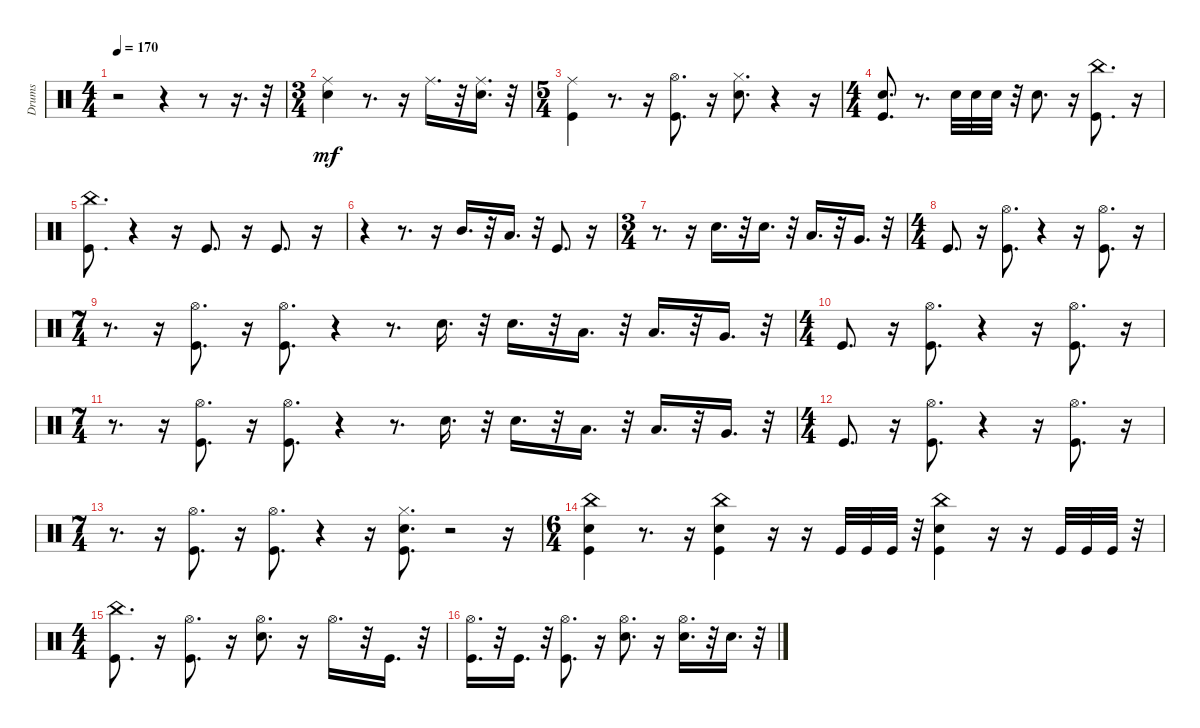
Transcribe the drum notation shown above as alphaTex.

\track ("Drums" "Drums") {instrument percussion}
\staff {score}
\articulation defaults
\ts (4 4)
\tempo 170
\clef neutral
\ks c
r.2{dy mf} r.4 r.8 r.16{d} r.32 |
\ts (3 4)
("Snare (hit) 2" "Ride (middle)").4 r.8{d} r.16 "Ride (middle)".16{d} r.32 ("Snare (hit) 2" "Ride (middle)").16{d} r.32 |
\ts (5 4)
("Kick (hit)" "Ride (middle)").4 r.8{d} r.16 ("Kick (hit)" "Hi-Hat (open)").8{d} r.16 ("Snare (hit) 2" "Hi-Hat (closed)").8{d} r.4 r.16 |
\ts (4 4)
("Kick (hit)" "Snare (hit) 2").8{d} r.8{d} "Snare (hit) 2".32 "Snare (hit) 2".32 "Snare (hit) 2".32 r.32 "Snare (hit) 2".8{d} r.16 ("Kick (hit)" "China (hit)").8{d} r.16 |
("Kick (hit)" "China (hit)").8{d} r.4 r.16 "Kick (hit)".8{d} r.16 "Kick (hit)".8{d} r.16 |
r.4 r.8{d} r.16 "Mid Tom (hit)".16{d} r.32 "Low Tom (hit)".16{d} r.32 "Kick (hit)".8{d} r.16 |
\ts (3 4)
r.8{d} r.16 "Snare (hit) 2".16{d} r.32 "Snare (hit) 2".16{d} r.32 "Low Tom (hit)".16{d} r.32 "Very Low Tom (hit)".16{d} r.32 |
\ts (4 4)
"Kick (hit)".8{d} r.16 ("Kick (hit)" "Hi-Hat (open)").8{d} r.4 r.16 ("Kick (hit)" "Hi-Hat (open)").8{d} r.16 |
\ts (7 4)
r.8{d} r.16 ("Kick (hit)" "Hi-Hat (open)").8{d} r.16 ("Kick (hit)" "Hi-Hat (open)").8{d} r.4 r.8{d} "Snare (hit) 2".16{d} r.32 "Snare (hit) 2".16{d} r.32 "Low Tom (hit)".16{d} r.32 "Low Tom (hit)".16{d} r.32 "Very Low Tom (hit)".16{d} r.32 |
\ts (4 4)
"Kick (hit)".8{d} r.16 ("Kick (hit)" "Hi-Hat (open)").8{d} r.4 r.16 ("Kick (hit)" "Hi-Hat (open)").8{d} r.16 |
\ts (7 4)
r.8{d} r.16 ("Kick (hit)" "Hi-Hat (open)").8{d} r.16 ("Kick (hit)" "Hi-Hat (open)").8{d} r.4 r.8{d} "Snare (hit) 2".16{d} r.32 "Snare (hit) 2".16{d} r.32 "Low Tom (hit)".16{d} r.32 "Low Tom (hit)".16{d} r.32 "Very Low Tom (hit)".16{d} r.32 |
\ts (4 4)
"Kick (hit)".8{d} r.16 ("Kick (hit)" "Hi-Hat (open)").8{d} r.4 r.16 ("Kick (hit)" "Hi-Hat (open)").8{d} r.16 |
\ts (7 4)
r.8{d} r.16 ("Kick (hit)" "Hi-Hat (open)").8{d} r.16 ("Kick (hit)" "Hi-Hat (open)").8{d} r.4 r.16 ("Kick (hit)" "Snare (hit) 2" "Hi-Hat (closed)").8{d} r.2 r.16 |
\ts (6 4)
("Kick (hit)" "Snare (hit) 2" "China (hit)").4 r.8{d} r.16 ("Kick (hit)" "Snare (hit) 2" "China (hit)").4 r.16 r.16 "Kick (hit)".32 "Kick (hit)".32 "Kick (hit)".32 r.32 ("Kick (hit)" "Snare (hit) 2" "China (hit)").4 r.16 r.16 "Kick (hit)".32 "Kick (hit)".32 "Kick (hit)".32 r.32 |
\ts (4 4)
("Kick (hit)" "China (hit)").8{d} r.16 ("Kick (hit)" "Hi-Hat (open)").8{d} r.16 ("Snare (hit) 2" "Hi-Hat (open)").8{d} r.16 "Hi-Hat (open)".16{d} r.32 "Kick (hit)".16{d} r.32 |
("Kick (hit)" "Hi-Hat (open)").16{d} r.32 "Kick (hit)".16{d} r.32 ("Kick (hit)" "Hi-Hat (open)").8{d} r.16 ("Snare (hit) 2" "Hi-Hat (open)").8{d} r.16 ("Snare (hit) 2" "Hi-Hat (open)").16{d} r.32 "Snare (hit) 2".16{d} r.32
